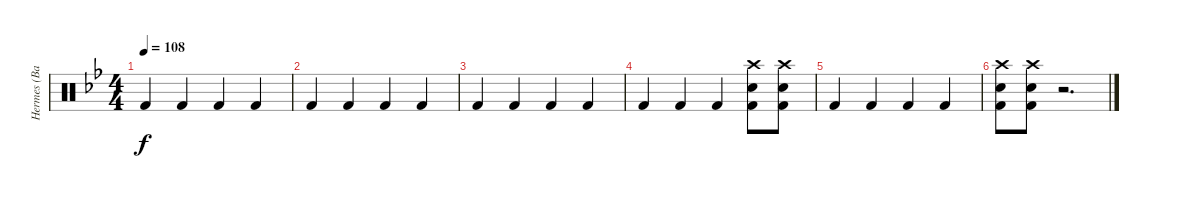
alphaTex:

\track ("Hermes (Bateria)" "Hermes (Ba") {instrument percussion}
\staff {score}
\articulation defaults
\ts (4 4)
\tempo 108
\clef neutral
\ks bb "Kick (hit) 2".4{dy f} "Kick (hit) 2".4 "Kick (hit) 2".4 "Kick (hit) 2".4
|
"Kick (hit) 2".4 "Kick (hit) 2".4 "Kick (hit) 2".4 "Kick (hit) 2".4 |
"Kick (hit) 2".4 "Kick (hit) 2".4 "Kick (hit) 2".4 "Kick (hit) 2".4 |
"Kick (hit) 2".4 "Kick (hit) 2".4 "Kick (hit) 2".4 ("Kick (hit) 2" "Electric Snare (hit)" "Crash high (hit)").8 ("Kick (hit) 2" "Electric Snare (hit)" "Crash high (hit)").8 |
"Kick (hit) 2".4 "Kick (hit) 2".4 "Kick (hit) 2".4 "Kick (hit) 2".4 |
("Kick (hit) 2" "Electric Snare (hit)" "Crash high (hit)").8 ("Kick (hit) 2" "Electric Snare (hit)" "Crash high (hit)").8 r.2{d}
